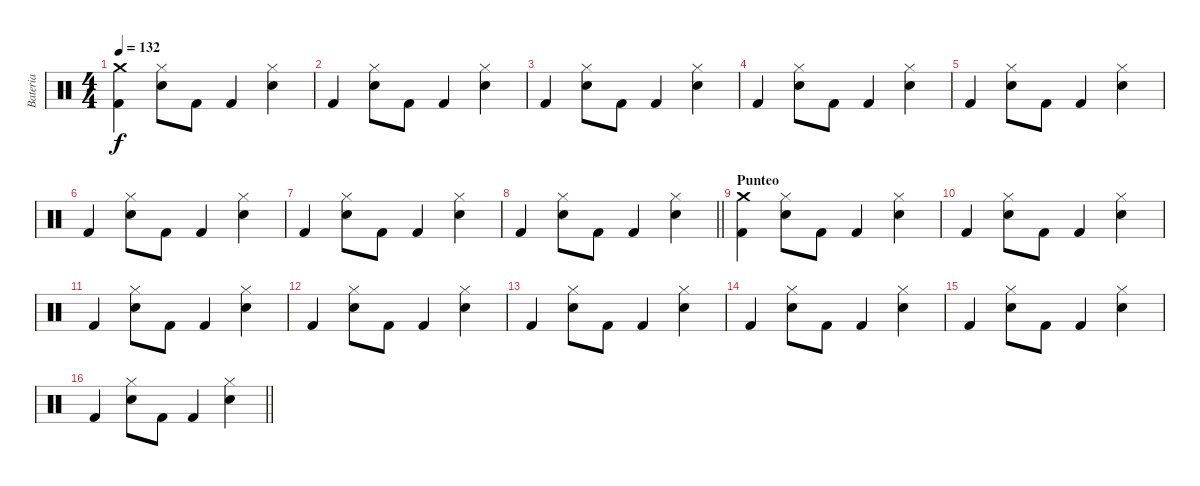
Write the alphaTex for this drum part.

\track ("Bateria" "Bateria") {instrument percussion}
\staff {score}
\articulation defaults
\ts (4 4)
\section ("" "")
\tempo 132
\clef neutral
\ks c
("Kick (hit) 2" "Crash medium (hit)").4{dy f} ("Electric Snare (hit)" "Hi-Hat (closed)").8 "Kick (hit) 2".8 "Kick (hit) 2".4 ("Electric Snare (hit)" "Hi-Hat (closed)").4 |
"Kick (hit) 2".4 ("Electric Snare (hit)" "Hi-Hat (closed)").8 "Kick (hit) 2".8 "Kick (hit) 2".4 ("Electric Snare (hit)" "Hi-Hat (closed)").4 |
"Kick (hit) 2".4 ("Electric Snare (hit)" "Hi-Hat (closed)").8 "Kick (hit) 2".8 "Kick (hit) 2".4 ("Electric Snare (hit)" "Hi-Hat (closed)").4 |
"Kick (hit) 2".4 ("Electric Snare (hit)" "Hi-Hat (closed)").8 "Kick (hit) 2".8 "Kick (hit) 2".4 ("Electric Snare (hit)" "Hi-Hat (closed)").4 |
"Kick (hit) 2".4 ("Electric Snare (hit)" "Hi-Hat (closed)").8 "Kick (hit) 2".8 "Kick (hit) 2".4 ("Electric Snare (hit)" "Hi-Hat (closed)").4 |
"Kick (hit) 2".4 ("Electric Snare (hit)" "Hi-Hat (closed)").8 "Kick (hit) 2".8 "Kick (hit) 2".4 ("Electric Snare (hit)" "Hi-Hat (closed)").4 |
"Kick (hit) 2".4 ("Electric Snare (hit)" "Hi-Hat (closed)").8 "Kick (hit) 2".8 "Kick (hit) 2".4 ("Electric Snare (hit)" "Hi-Hat (closed)").4 |
\barLineRight lightlight "Kick (hit) 2".4
("Electric Snare (hit)" "Hi-Hat (closed)").8 "Kick (hit) 2".8 "Kick (hit) 2".4 ("Electric Snare (hit)" "Hi-Hat (closed)").4 |
\section ("" "Punteo")
("Kick (hit) 2" "Crash medium (hit)").4 ("Electric Snare (hit)" "Hi-Hat (closed)").8 "Kick (hit) 2".8 "Kick (hit) 2".4 ("Electric Snare (hit)" "Hi-Hat (closed)").4 |
"Kick (hit) 2".4 ("Electric Snare (hit)" "Hi-Hat (closed)").8 "Kick (hit) 2".8 "Kick (hit) 2".4 ("Electric Snare (hit)" "Hi-Hat (closed)").4 |
"Kick (hit) 2".4 ("Electric Snare (hit)" "Hi-Hat (closed)").8 "Kick (hit) 2".8 "Kick (hit) 2".4 ("Electric Snare (hit)" "Hi-Hat (closed)").4 |
"Kick (hit) 2".4 ("Electric Snare (hit)" "Hi-Hat (closed)").8 "Kick (hit) 2".8 "Kick (hit) 2".4 ("Electric Snare (hit)" "Hi-Hat (closed)").4 |
"Kick (hit) 2".4 ("Electric Snare (hit)" "Hi-Hat (closed)").8 "Kick (hit) 2".8 "Kick (hit) 2".4 ("Electric Snare (hit)" "Hi-Hat (closed)").4 |
"Kick (hit) 2".4 ("Electric Snare (hit)" "Hi-Hat (closed)").8 "Kick (hit) 2".8 "Kick (hit) 2".4 ("Electric Snare (hit)" "Hi-Hat (closed)").4 |
"Kick (hit) 2".4 ("Electric Snare (hit)" "Hi-Hat (closed)").8 "Kick (hit) 2".8 "Kick (hit) 2".4 ("Electric Snare (hit)" "Hi-Hat (closed)").4 |
\barLineRight lightlight "Kick (hit) 2".4
("Electric Snare (hit)" "Hi-Hat (closed)").8 "Kick (hit) 2".8 "Kick (hit) 2".4 ("Electric Snare (hit)" "Hi-Hat (closed)").4
